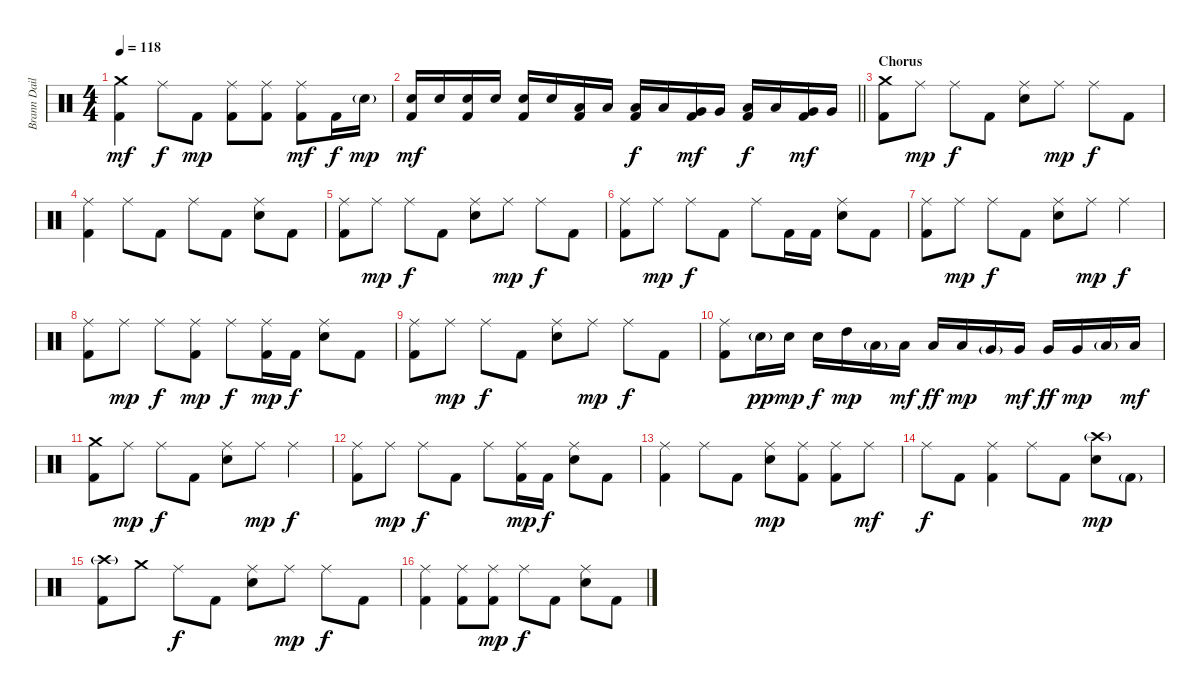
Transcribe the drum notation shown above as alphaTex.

\track ("Brann Dailor - Drums" "Brann Dail") {instrument percussion}
\staff {score}
\articulation defaults
\ts (4 4)
\tempo 118
\clef neutral
\ks c
("Crash medium (hit)" "Kick (hit) 2").4{dy mf} "Ride (middle)".8{dy f} "Kick (hit) 2".8{dy mp} ("Ride (middle)" "Kick (hit) 2").8 ("Ride (middle)" "Kick (hit) 2").8 ("Ride (middle)" "Kick (hit) 2").8{dy mf} "Kick (hit) 2".16{dy f} "Electric Snare (hit)"{g}.16{dy mp} |
\barLineRight lightlight
("Electric Snare (hit)" "Kick (hit) 2").16{dy mf} "Electric Snare (hit)".16 ("Electric Snare (hit)" "Kick (hit) 2").16 "Electric Snare (hit)".16 ("Electric Snare (hit)" "Kick (hit) 2").16 "Electric Snare (hit)".16 ("Low Tom (hit)" "Kick (hit) 2").16 "Low Tom (hit)".16 ("Low Tom (hit)" "Kick (hit) 2").16{dy f} "Low Tom (hit)".16 ("Very Low Tom (hit)" "Kick (hit) 2").16{dy mf} "Very Low Tom (hit)".16 ("Low Tom (hit)" "Kick (hit) 2").16{dy f} "Low Tom (hit)".16 ("Very Low Tom (hit)" "Kick (hit) 2").16{dy mf} "Very Low Tom (hit)".16 |
\section ("" "Chorus")
("Crash medium (hit)" "Kick (hit) 2").8 "Ride (middle)".8{dy mp} "Ride (middle)".8{dy f} "Kick (hit) 2".8 ("Ride (middle)" "Electric Snare (hit)").8 "Ride (middle)".8{dy mp} "Ride (middle)".8{dy f} "Kick (hit) 2".8 |
("Ride (middle)" "Kick (hit) 2").4 "Ride (middle)".8 "Kick (hit) 2".8 "Ride (middle)".8 "Kick (hit) 2".8 ("Ride (middle)" "Electric Snare (hit)").8 "Kick (hit) 2".8 |
("Ride (middle)" "Kick (hit) 2").8 "Ride (middle)".8{dy mp} "Ride (middle)".8{dy f} "Kick (hit) 2".8 ("Ride (middle)" "Electric Snare (hit)").8 "Ride (middle)".8{dy mp} "Ride (middle)".8{dy f} "Kick (hit) 2".8 |
("Ride (middle)" "Kick (hit) 2").8 "Ride (middle)".8{dy mp} "Ride (middle)".8{dy f} "Kick (hit) 2".8 "Ride (middle)".8 "Kick (hit) 2".16 "Kick (hit) 2".16 ("Ride (middle)" "Electric Snare (hit)").8 "Kick (hit) 2".8 |
("Ride (middle)" "Kick (hit) 2").8 "Ride (middle)".8{dy mp} "Ride (middle)".8{dy f} "Kick (hit) 2".8 ("Ride (middle)" "Electric Snare (hit)").8 "Ride (middle)".8{dy mp} "Ride (middle)".4{dy f} |
("Ride (middle)" "Kick (hit) 2").8 "Ride (middle)".8{dy mp} "Ride (middle)".8{dy f} ("Ride (middle)" "Kick (hit) 2").8{dy mp} "Ride (middle)".8{dy f} ("Ride (middle)" "Kick (hit) 2").16{dy mp} "Kick (hit) 2".16{dy f} ("Ride (middle)" "Electric Snare (hit)").8 "Kick (hit) 2".8 |
("Ride (middle)" "Kick (hit) 2").8 "Ride (middle)".8{dy mp} "Ride (middle)".8{dy f} "Kick (hit) 2".8 ("Ride (middle)" "Electric Snare (hit)").8 "Ride (middle)".8{dy mp} "Ride (middle)".8{dy f} "Kick (hit) 2".8 |
("Ride (middle)" "Kick (hit) 2").8 "Electric Snare (hit)"{g}.16{dy pp} "Electric Snare (hit)".16{dy mp} "Electric Snare (hit)".16{dy f} "High Tom (hit)".16{dy mp} "Low Tom (hit)"{g}.16 "Low Tom (hit)".16{dy mf} "Low Tom (hit)".16{dy ff} "Low Tom (hit)".16{dy mp} "Very Low Tom (hit)"{g}.16 "Very Low Tom (hit)".16{dy mf} "Very Low Tom (hit)".16{dy ff} "Very Low Tom (hit)".16{dy mp} "Low Floor Tom (hit)"{g}.16 "Low Floor Tom (hit)".16{dy mf} |
("Crash medium (hit)" "Kick (hit) 2").8 "Ride (middle)".8{dy mp} "Ride (middle)".8{dy f} "Kick (hit) 2".8 ("Ride (middle)" "Electric Snare (hit)").8 "Ride (middle)".8{dy mp} "Ride (middle)".4{dy f} |
("Ride (middle)" "Kick (hit) 2").8 "Ride (middle)".8{dy mp} "Ride (middle)".8{dy f} "Kick (hit) 2".8 "Ride (middle)".8 ("Ride (middle)" "Kick (hit) 2").16{dy mp} "Kick (hit) 2".16{dy f} ("Ride (middle)" "Electric Snare (hit)").8 "Kick (hit) 2".8 |
("Ride (middle)" "Kick (hit) 2").4 "Ride (middle)".8 "Kick (hit) 2".8 ("Ride (middle)" "Electric Snare (hit)").8{dy mp} ("Ride (middle)" "Kick (hit) 2").8 ("Ride (middle)" "Kick (hit) 2").8 "Ride (middle)".8{dy mf} |
"Ride (middle)".8{dy f} "Kick (hit) 2".8 ("Ride (middle)" "Kick (hit) 2").4 "Ride (middle)".8 "Kick (hit) 2".8 ("Crash high (hit)"{g} "Electric Snare (hit)").8{dy mp} "Kick (hit) 2"{g}.8 |
("Crash high (hit)"{g} "Kick (hit) 2").8 "Crash medium (hit)".8 "Ride (middle)".8{dy f} "Kick (hit) 2".8 ("Ride (middle)" "Electric Snare (hit)").8 "Ride (middle)".8{dy mp} "Ride (middle)".8{dy f} "Kick (hit) 2".8 |
("Ride (middle)" "Kick (hit) 2").4 ("Ride (middle)" "Kick (hit) 2").8 ("Ride (middle)" "Kick (hit) 2").8{dy mp} "Ride (middle)".8{dy f} "Kick (hit) 2".8 ("Ride (middle)" "Electric Snare (hit)").8 "Kick (hit) 2".8
